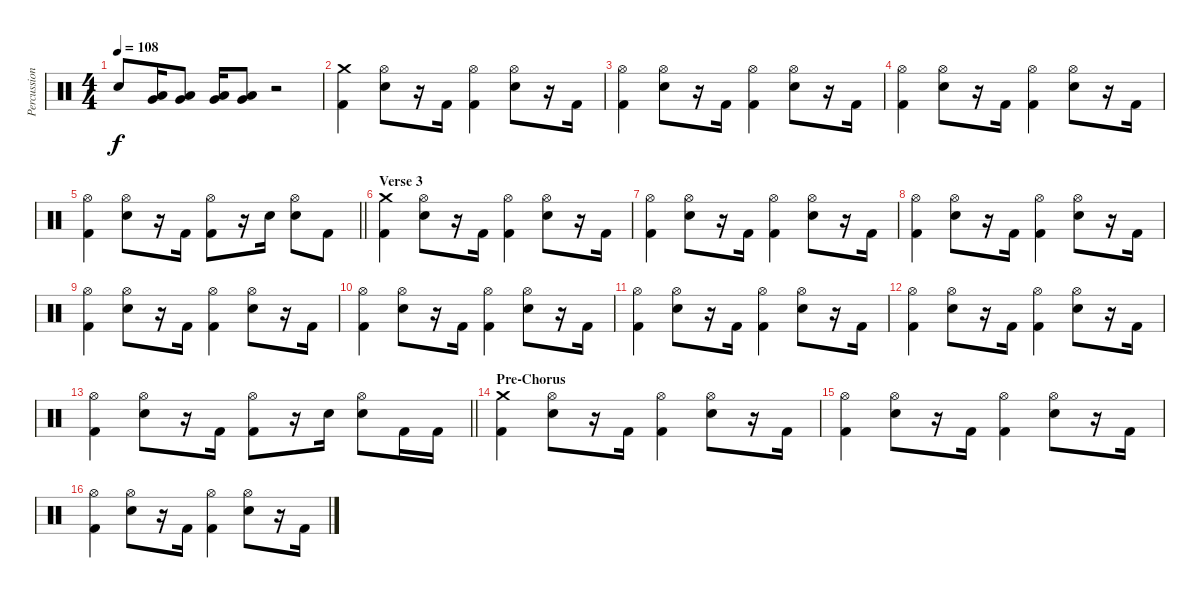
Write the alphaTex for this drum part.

\track ("Percussion" "Percussion") {instrument percussion}
\staff {score}
\articulation defaults
\ts (4 4)
\tempo 108
\clef neutral
\ks c "Snare (hit) 2".8{dy f}
("Very Low Tom (hit)" "Low Tom (hit)").16 ("Very Low Tom (hit)" "Low Tom (hit)").8 ("Very Low Tom (hit)" "Low Tom (hit)").16 ("Very Low Tom (hit)" "Low Tom (hit)").8 r.2 |
("Kick (hit) 2" "Crash medium (hit)").4 ("Hi-Hat (open)" "Snare (hit) 2").8 r.16 "Kick (hit) 2".16 ("Hi-Hat (open)" "Kick (hit) 2").4 ("Hi-Hat (open)" "Snare (hit) 2").8 r.16 "Kick (hit) 2".16 |
("Hi-Hat (open)" "Kick (hit) 2").4 ("Hi-Hat (open)" "Snare (hit) 2").8 r.16 "Kick (hit) 2".16 ("Hi-Hat (open)" "Kick (hit) 2").4 ("Hi-Hat (open)" "Snare (hit) 2").8 r.16 "Kick (hit) 2".16 |
("Hi-Hat (open)" "Kick (hit) 2").4 ("Hi-Hat (open)" "Snare (hit) 2").8 r.16 "Kick (hit) 2".16 ("Hi-Hat (open)" "Kick (hit) 2").4 ("Hi-Hat (open)" "Snare (hit) 2").8 r.16 "Kick (hit) 2".16 |
\barLineRight lightlight
("Hi-Hat (open)" "Kick (hit) 2").4 ("Hi-Hat (open)" "Snare (hit) 2").8 r.16 "Kick (hit) 2".16 ("Hi-Hat (open)" "Kick (hit) 2").8 r.16 "Snare (hit) 2".16 ("Hi-Hat (open)" "Snare (hit) 2").8 "Kick (hit) 2".8 |
\section ("" "Verse 3")
("Kick (hit) 2" "Crash medium (hit)").4 ("Hi-Hat (open)" "Snare (hit) 2").8 r.16 "Kick (hit) 2".16 ("Hi-Hat (open)" "Kick (hit) 2").4 ("Hi-Hat (open)" "Snare (hit) 2").8 r.16 "Kick (hit) 2".16 |
("Hi-Hat (open)" "Kick (hit) 2").4 ("Hi-Hat (open)" "Snare (hit) 2").8 r.16 "Kick (hit) 2".16 ("Hi-Hat (open)" "Kick (hit) 2").4 ("Hi-Hat (open)" "Snare (hit) 2").8 r.16 "Kick (hit) 2".16 |
("Hi-Hat (open)" "Kick (hit) 2").4 ("Hi-Hat (open)" "Snare (hit) 2").8 r.16 "Kick (hit) 2".16 ("Hi-Hat (open)" "Kick (hit) 2").4 ("Hi-Hat (open)" "Snare (hit) 2").8 r.16 "Kick (hit) 2".16 |
("Hi-Hat (open)" "Kick (hit) 2").4 ("Hi-Hat (open)" "Snare (hit) 2").8 r.16 "Kick (hit) 2".16 ("Hi-Hat (open)" "Kick (hit) 2").4 ("Hi-Hat (open)" "Snare (hit) 2").8 r.16 "Kick (hit) 2".16 |
("Hi-Hat (open)" "Kick (hit) 2").4 ("Hi-Hat (open)" "Snare (hit) 2").8 r.16 "Kick (hit) 2".16 ("Hi-Hat (open)" "Kick (hit) 2").4 ("Hi-Hat (open)" "Snare (hit) 2").8 r.16 "Kick (hit) 2".16 |
("Hi-Hat (open)" "Kick (hit) 2").4 ("Hi-Hat (open)" "Snare (hit) 2").8 r.16 "Kick (hit) 2".16 ("Hi-Hat (open)" "Kick (hit) 2").4 ("Hi-Hat (open)" "Snare (hit) 2").8 r.16 "Kick (hit) 2".16 |
("Hi-Hat (open)" "Kick (hit) 2").4 ("Hi-Hat (open)" "Snare (hit) 2").8 r.16 "Kick (hit) 2".16 ("Hi-Hat (open)" "Kick (hit) 2").4 ("Hi-Hat (open)" "Snare (hit) 2").8 r.16 "Kick (hit) 2".16 |
\barLineRight lightlight
("Hi-Hat (open)" "Kick (hit) 2").4 ("Hi-Hat (open)" "Snare (hit) 2").8 r.16 "Kick (hit) 2".16 ("Hi-Hat (open)" "Kick (hit) 2").8 r.16 "Snare (hit) 2".16 ("Hi-Hat (open)" "Snare (hit) 2").8 "Kick (hit) 2".16 "Kick (hit) 2".16 |
\section ("" "Pre-Chorus")
("Kick (hit) 2" "Crash medium (hit)").4 ("Hi-Hat (open)" "Snare (hit) 2").8 r.16 "Kick (hit) 2".16 ("Hi-Hat (open)" "Kick (hit) 2").4 ("Hi-Hat (open)" "Snare (hit) 2").8 r.16 "Kick (hit) 2".16 |
("Hi-Hat (open)" "Kick (hit) 2").4 ("Hi-Hat (open)" "Snare (hit) 2").8 r.16 "Kick (hit) 2".16 ("Hi-Hat (open)" "Kick (hit) 2").4 ("Hi-Hat (open)" "Snare (hit) 2").8 r.16 "Kick (hit) 2".16 |
("Hi-Hat (open)" "Kick (hit) 2").4 ("Hi-Hat (open)" "Snare (hit) 2").8 r.16 "Kick (hit) 2".16 ("Hi-Hat (open)" "Kick (hit) 2").4 ("Hi-Hat (open)" "Snare (hit) 2").8 r.16 "Kick (hit) 2".16
